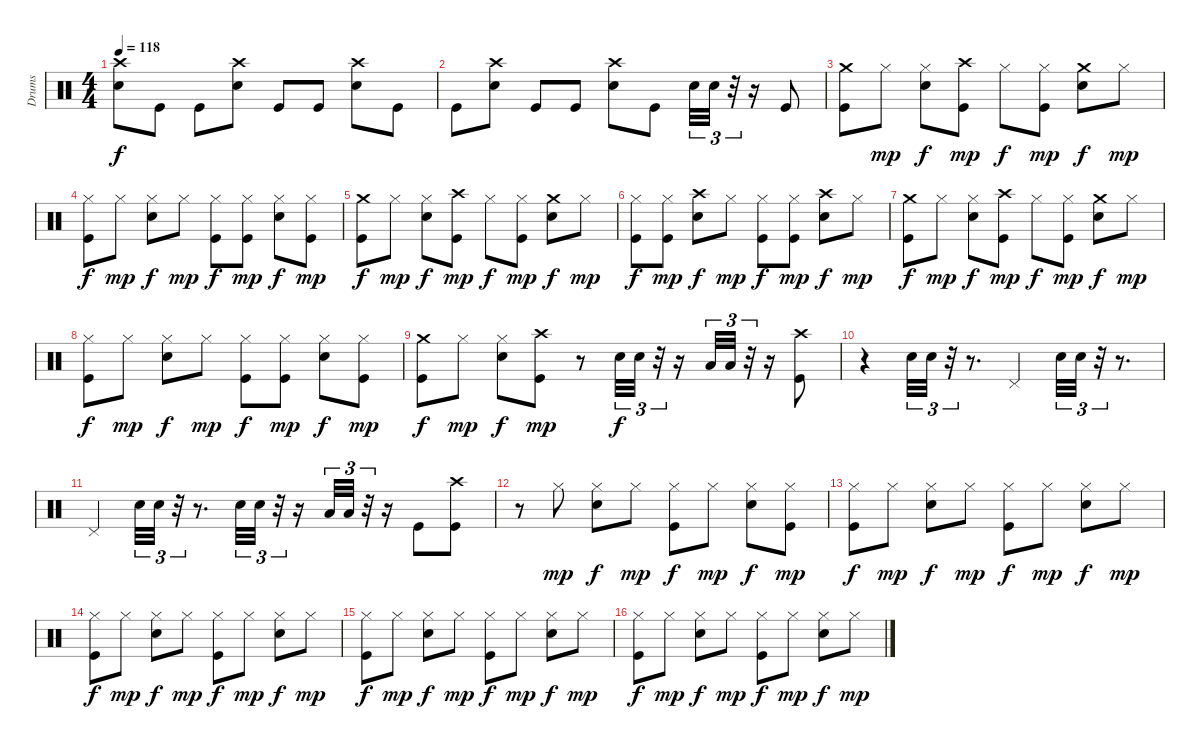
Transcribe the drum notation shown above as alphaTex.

\track ("Drums" "Drums") {instrument percussion}
\staff {score}
\articulation defaults
\ts (4 4)
\tempo 118
\clef neutral
\ks c
("Crash high (hit)" "Snare (hit) 2").8{dy f} "Kick (hit)".8 "Kick (hit)".8 ("Crash high (hit)" "Snare (hit) 2").8 "Kick (hit)".8 "Kick (hit)".8 ("Crash high (hit)" "Snare (hit) 2").8 "Kick (hit)".8 |
"Kick (hit)".8 ("Crash high (hit)" "Snare (hit) 2").8 "Kick (hit)".8 "Kick (hit)".8 ("Crash high (hit)" "Snare (hit) 2").8 "Kick (hit)".8 "Snare (hit) 2".32{tu (3 2)} "Snare (hit) 2".32{tu (3 2)} r.32{tu (3 2)} r.16 "Kick (hit)".8 |
("Crash medium (hit)" "Kick (hit)").8 "Hi-Hat (closed)".8{dy mp} ("Hi-Hat (closed)" "Snare (hit) 2").8{dy f} ("Crash high (hit)" "Kick (hit)").8{dy mp} "Hi-Hat (closed)".8{dy f} ("Hi-Hat (closed)" "Kick (hit)").8{dy mp} ("Crash medium (hit)" "Snare (hit) 2").8{dy f} "Hi-Hat (closed)".8{dy mp} |
("Hi-Hat (closed)" "Kick (hit)").8{dy f} "Hi-Hat (closed)".8{dy mp} ("Hi-Hat (closed)" "Snare (hit) 2").8{dy f} "Hi-Hat (closed)".8{dy mp} ("Hi-Hat (closed)" "Kick (hit)").8{dy f} ("Hi-Hat (closed)" "Kick (hit)").8{dy mp} ("Hi-Hat (closed)" "Snare (hit) 2").8{dy f} ("Hi-Hat (closed)" "Kick (hit)").8{dy mp} |
("Crash medium (hit)" "Kick (hit)").8{dy f} "Hi-Hat (closed)".8{dy mp} ("Hi-Hat (closed)" "Snare (hit) 2").8{dy f} ("Crash high (hit)" "Kick (hit)").8{dy mp} "Hi-Hat (closed)".8{dy f} ("Hi-Hat (closed)" "Kick (hit)").8{dy mp} ("Crash medium (hit)" "Snare (hit) 2").8{dy f} "Hi-Hat (closed)".8{dy mp} |
("Hi-Hat (closed)" "Kick (hit)").8{dy f} ("Hi-Hat (closed)" "Kick (hit)").8{dy mp} ("Crash high (hit)" "Snare (hit) 2").8{dy f} "Hi-Hat (closed)".8{dy mp} ("Hi-Hat (closed)" "Kick (hit)").8{dy f} ("Hi-Hat (closed)" "Kick (hit)").8{dy mp} ("Crash high (hit)" "Snare (hit) 2").8{dy f} "Hi-Hat (closed)".8{dy mp} |
("Crash medium (hit)" "Kick (hit)").8{dy f} "Hi-Hat (closed)".8{dy mp} ("Hi-Hat (closed)" "Snare (hit) 2").8{dy f} ("Crash high (hit)" "Kick (hit)").8{dy mp} "Hi-Hat (closed)".8{dy f} ("Hi-Hat (closed)" "Kick (hit)").8{dy mp} ("Crash medium (hit)" "Snare (hit) 2").8{dy f} "Hi-Hat (closed)".8{dy mp} |
("Hi-Hat (closed)" "Kick (hit)").8{dy f} "Hi-Hat (closed)".8{dy mp} ("Hi-Hat (closed)" "Snare (hit) 2").8{dy f} "Hi-Hat (closed)".8{dy mp} ("Hi-Hat (closed)" "Kick (hit)").8{dy f} ("Hi-Hat (closed)" "Kick (hit)").8{dy mp} ("Hi-Hat (closed)" "Snare (hit) 2").8{dy f} ("Hi-Hat (closed)" "Kick (hit)").8{dy mp} |
("Crash medium (hit)" "Kick (hit)").8{dy f} "Hi-Hat (closed)".8{dy mp} ("Hi-Hat (closed)" "Snare (hit) 2").8{dy f} ("Crash high (hit)" "Kick (hit)").8{dy mp} r.8 "Snare (hit) 2".32{tu (3 2) dy f} "Snare (hit) 2".32{tu (3 2)} r.32{tu (3 2)} r.16 "Low Tom (hit)".32{tu (3 2)} "Low Tom (hit)".32{tu (3 2)} r.32{tu (3 2)} r.16 ("Crash high (hit)" "Kick (hit)").8 |
r.4 "Snare (hit) 2".32{tu (3 2)} "Snare (hit) 2".32{tu (3 2)} r.32{tu (3 2)} r.8{d} "Pedal Hi-Hat (hit)".4 "Snare (hit) 2".32{tu (3 2)} "Snare (hit) 2".32{tu (3 2)} r.32{tu (3 2)} r.8{d} |
"Pedal Hi-Hat (hit)".4 "Snare (hit) 2".32{tu (3 2)} "Snare (hit) 2".32{tu (3 2)} r.32{tu (3 2)} r.8{d} "Snare (hit) 2".32{tu (3 2)} "Snare (hit) 2".32{tu (3 2)} r.32{tu (3 2)} r.16 "Low Tom (hit)".32{tu (3 2)} "Low Tom (hit)".32{tu (3 2)} r.32{tu (3 2)} r.16 "Kick (hit)".8 ("Crash high (hit)" "Kick (hit)").8 |
r.8 "Hi-Hat (closed)".8{dy mp} ("Hi-Hat (closed)" "Snare (hit) 2").8{dy f} "Hi-Hat (closed)".8{dy mp} ("Hi-Hat (closed)" "Kick (hit)").8{dy f} "Hi-Hat (closed)".8{dy mp} ("Hi-Hat (closed)" "Snare (hit) 2").8{dy f} ("Hi-Hat (closed)" "Kick (hit)").8{dy mp} |
("Hi-Hat (closed)" "Kick (hit)").8{dy f} "Hi-Hat (closed)".8{dy mp} ("Hi-Hat (closed)" "Snare (hit) 2").8{dy f} "Hi-Hat (closed)".8{dy mp} ("Hi-Hat (closed)" "Kick (hit)").8{dy f} "Hi-Hat (closed)".8{dy mp} ("Hi-Hat (closed)" "Snare (hit) 2").8{dy f} "Hi-Hat (closed)".8{dy mp} |
("Hi-Hat (closed)" "Kick (hit)").8{dy f} "Hi-Hat (closed)".8{dy mp} ("Hi-Hat (closed)" "Snare (hit) 2").8{dy f} "Hi-Hat (closed)".8{dy mp} ("Hi-Hat (closed)" "Kick (hit)").8{dy f} "Hi-Hat (closed)".8{dy mp} ("Hi-Hat (closed)" "Snare (hit) 2").8{dy f} "Hi-Hat (closed)".8{dy mp} |
("Hi-Hat (closed)" "Kick (hit)").8{dy f} "Hi-Hat (closed)".8{dy mp} ("Hi-Hat (closed)" "Snare (hit) 2").8{dy f} "Hi-Hat (closed)".8{dy mp} ("Hi-Hat (closed)" "Kick (hit)").8{dy f} "Hi-Hat (closed)".8{dy mp} ("Hi-Hat (closed)" "Snare (hit) 2").8{dy f} "Hi-Hat (closed)".8{dy mp} |
("Hi-Hat (closed)" "Kick (hit)").8{dy f} "Hi-Hat (closed)".8{dy mp} ("Hi-Hat (closed)" "Snare (hit) 2").8{dy f} "Hi-Hat (closed)".8{dy mp} ("Hi-Hat (closed)" "Kick (hit)").8{dy f} "Hi-Hat (closed)".8{dy mp} ("Hi-Hat (closed)" "Snare (hit) 2").8{dy f} "Hi-Hat (closed)".8{dy mp}
